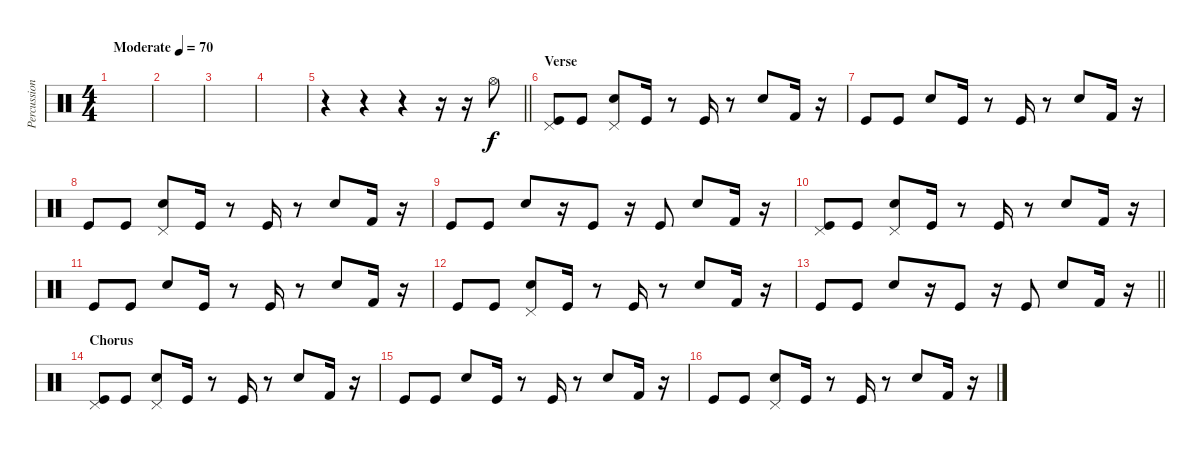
\track ("Percussion" "Percussion") {instrument percussion}
\staff {score}
\articulation defaults
\ts (4 4)
\tempo (70 "Moderate")
\clef neutral
\ks c
|
|
|
|
\barLineRight lightlight
r.4 r.4 r.4 r.16 r.16 "Hi-Hat (open)".8 |
\section ("" "Verse")
("Pedal Hi-Hat (hit)" "Kick (hit)").8 "Kick (hit)".8 ("Pedal Hi-Hat (hit)" "Snare (hit) 2").8 "Kick (hit)".16 r.8 "Kick (hit)".16 r.8 "Snare (hit) 2".8 "Kick (hit) 2".16 r.16 |
"Kick (hit)".8 "Kick (hit)".8 "Snare (hit) 2".8 "Kick (hit)".16 r.8 "Kick (hit)".16 r.8 "Snare (hit) 2".8 "Kick (hit) 2".16 r.16 |
"Kick (hit)".8 "Kick (hit)".8 ("Pedal Hi-Hat (hit)" "Snare (hit) 2").8 "Kick (hit)".16 r.8 "Kick (hit)".16 r.8 "Snare (hit) 2".8 "Kick (hit) 2".16 r.16 |
"Kick (hit)".8 "Kick (hit)".8 "Snare (hit) 2".8 r.16 "Kick (hit)".8 r.16 "Kick (hit)".8 "Snare (hit) 2".8 "Kick (hit) 2".16 r.16 |
("Pedal Hi-Hat (hit)" "Kick (hit)").8 "Kick (hit)".8 ("Pedal Hi-Hat (hit)" "Snare (hit) 2").8 "Kick (hit)".16 r.8 "Kick (hit)".16 r.8 "Snare (hit) 2".8 "Kick (hit) 2".16 r.16 |
"Kick (hit)".8 "Kick (hit)".8 "Snare (hit) 2".8 "Kick (hit)".16 r.8 "Kick (hit)".16 r.8 "Snare (hit) 2".8 "Kick (hit) 2".16 r.16 |
"Kick (hit)".8 "Kick (hit)".8 ("Pedal Hi-Hat (hit)" "Snare (hit) 2").8 "Kick (hit)".16 r.8 "Kick (hit)".16 r.8 "Snare (hit) 2".8 "Kick (hit) 2".16 r.16 |
\barLineRight lightlight "Kick (hit)".8 "Kick (hit)".8 "Snare (hit) 2".8
r.16 "Kick (hit)".8 r.16 "Kick (hit)".8 "Snare (hit) 2".8 "Kick (hit) 2".16 r.16 |
\section ("" "Chorus")
("Pedal Hi-Hat (hit)" "Kick (hit)").8 "Kick (hit)".8 ("Pedal Hi-Hat (hit)" "Snare (hit) 2").8 "Kick (hit)".16 r.8 "Kick (hit)".16 r.8 "Snare (hit) 2".8 "Kick (hit) 2".16 r.16 |
"Kick (hit)".8 "Kick (hit)".8 "Snare (hit) 2".8 "Kick (hit)".16 r.8 "Kick (hit)".16 r.8 "Snare (hit) 2".8 "Kick (hit) 2".16 r.16 |
"Kick (hit)".8 "Kick (hit)".8 ("Pedal Hi-Hat (hit)" "Snare (hit) 2").8 "Kick (hit)".16 r.8 "Kick (hit)".16 r.8 "Snare (hit) 2".8 "Kick (hit) 2".16 r.16
